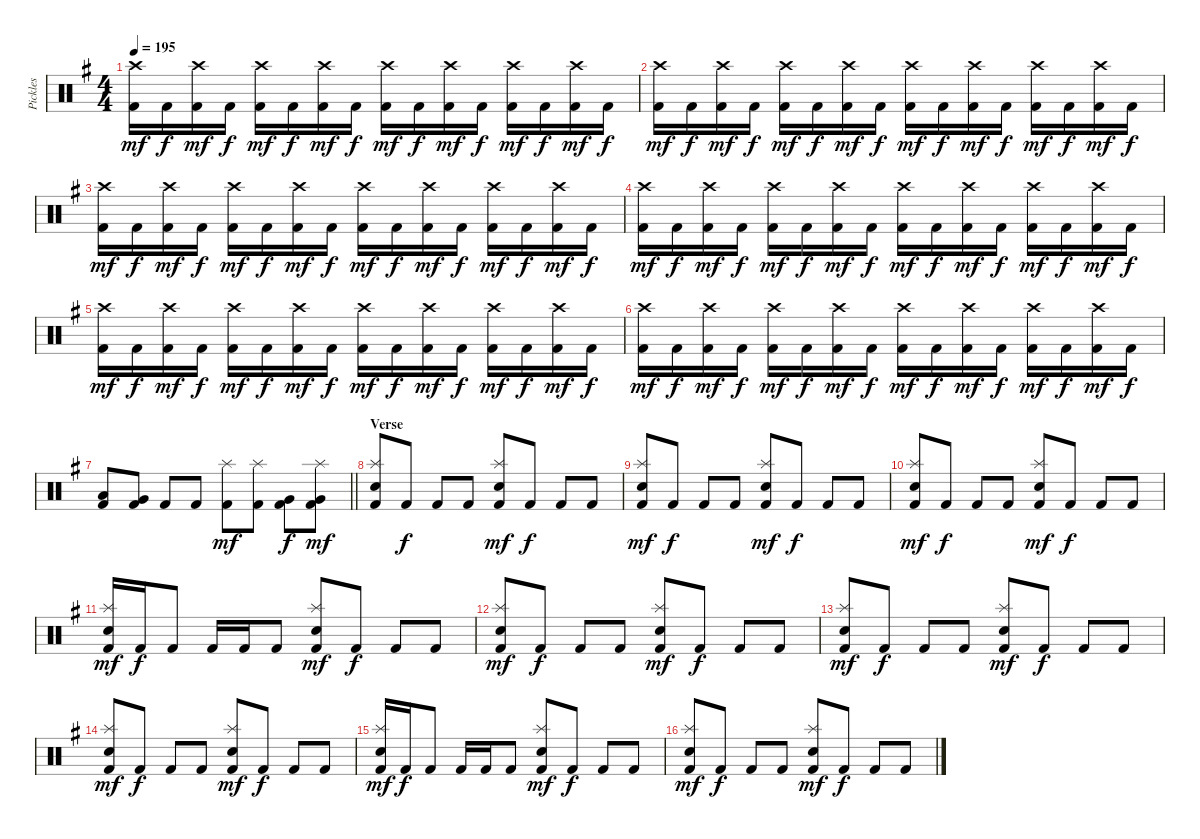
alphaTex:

\track ("Pickles" "Pickles") {instrument percussion}
\staff {score}
\articulation defaults
\ts (4 4)
\tempo 195
\clef neutral
\ks eminor
("Crash high (hit)" "Kick (hit) 2").16{dy mf} "Kick (hit) 2".16{dy f} ("Crash high (hit)" "Kick (hit) 2").16{dy mf} "Kick (hit) 2".16{dy f} ("Crash high (hit)" "Kick (hit) 2").16{dy mf} "Kick (hit) 2".16{dy f} ("Crash high (hit)" "Kick (hit) 2").16{dy mf} "Kick (hit) 2".16{dy f} ("Crash high (hit)" "Kick (hit) 2").16{dy mf} "Kick (hit) 2".16{dy f} ("Crash high (hit)" "Kick (hit) 2").16{dy mf} "Kick (hit) 2".16{dy f} ("Crash high (hit)" "Kick (hit) 2").16{dy mf} "Kick (hit) 2".16{dy f} ("Crash high (hit)" "Kick (hit) 2").16{dy mf} "Kick (hit) 2".16{dy f} |
("Crash high (hit)" "Kick (hit) 2").16{dy mf} "Kick (hit) 2".16{dy f} ("Crash high (hit)" "Kick (hit) 2").16{dy mf} "Kick (hit) 2".16{dy f} ("Crash high (hit)" "Kick (hit) 2").16{dy mf} "Kick (hit) 2".16{dy f} ("Crash high (hit)" "Kick (hit) 2").16{dy mf} "Kick (hit) 2".16{dy f} ("Crash high (hit)" "Kick (hit) 2").16{dy mf} "Kick (hit) 2".16{dy f} ("Crash high (hit)" "Kick (hit) 2").16{dy mf} "Kick (hit) 2".16{dy f} ("Crash high (hit)" "Kick (hit) 2").16{dy mf} "Kick (hit) 2".16{dy f} ("Crash high (hit)" "Kick (hit) 2").16{dy mf} "Kick (hit) 2".16{dy f} |
("Crash high (hit)" "Kick (hit) 2").16{dy mf} "Kick (hit) 2".16{dy f} ("Crash high (hit)" "Kick (hit) 2").16{dy mf} "Kick (hit) 2".16{dy f} ("Crash high (hit)" "Kick (hit) 2").16{dy mf} "Kick (hit) 2".16{dy f} ("Crash high (hit)" "Kick (hit) 2").16{dy mf} "Kick (hit) 2".16{dy f} ("Crash high (hit)" "Kick (hit) 2").16{dy mf} "Kick (hit) 2".16{dy f} ("Crash high (hit)" "Kick (hit) 2").16{dy mf} "Kick (hit) 2".16{dy f} ("Crash high (hit)" "Kick (hit) 2").16{dy mf} "Kick (hit) 2".16{dy f} ("Crash high (hit)" "Kick (hit) 2").16{dy mf} "Kick (hit) 2".16{dy f} |
("Crash high (hit)" "Kick (hit) 2").16{dy mf} "Kick (hit) 2".16{dy f} ("Crash high (hit)" "Kick (hit) 2").16{dy mf} "Kick (hit) 2".16{dy f} ("Crash high (hit)" "Kick (hit) 2").16{dy mf} "Kick (hit) 2".16{dy f} ("Crash high (hit)" "Kick (hit) 2").16{dy mf} "Kick (hit) 2".16{dy f} ("Crash high (hit)" "Kick (hit) 2").16{dy mf} "Kick (hit) 2".16{dy f} ("Crash high (hit)" "Kick (hit) 2").16{dy mf} "Kick (hit) 2".16{dy f} ("Crash high (hit)" "Kick (hit) 2").16{dy mf} "Kick (hit) 2".16{dy f} ("Crash high (hit)" "Kick (hit) 2").16{dy mf} "Kick (hit) 2".16{dy f} |
("Crash high (hit)" "Kick (hit) 2").16{dy mf} "Kick (hit) 2".16{dy f} ("Crash high (hit)" "Kick (hit) 2").16{dy mf} "Kick (hit) 2".16{dy f} ("Crash high (hit)" "Kick (hit) 2").16{dy mf} "Kick (hit) 2".16{dy f} ("Crash high (hit)" "Kick (hit) 2").16{dy mf} "Kick (hit) 2".16{dy f} ("Crash high (hit)" "Kick (hit) 2").16{dy mf} "Kick (hit) 2".16{dy f} ("Crash high (hit)" "Kick (hit) 2").16{dy mf} "Kick (hit) 2".16{dy f} ("Crash high (hit)" "Kick (hit) 2").16{dy mf} "Kick (hit) 2".16{dy f} ("Crash high (hit)" "Kick (hit) 2").16{dy mf} "Kick (hit) 2".16{dy f} |
("Crash high (hit)" "Kick (hit) 2").16{dy mf} "Kick (hit) 2".16{dy f} ("Crash high (hit)" "Kick (hit) 2").16{dy mf} "Kick (hit) 2".16{dy f} ("Crash high (hit)" "Kick (hit) 2").16{dy mf} "Kick (hit) 2".16{dy f} ("Crash high (hit)" "Kick (hit) 2").16{dy mf} "Kick (hit) 2".16{dy f} ("Crash high (hit)" "Kick (hit) 2").16{dy mf} "Kick (hit) 2".16{dy f} ("Crash high (hit)" "Kick (hit) 2").16{dy mf} "Kick (hit) 2".16{dy f} ("Crash high (hit)" "Kick (hit) 2").16{dy mf} "Kick (hit) 2".16{dy f} ("Crash high (hit)" "Kick (hit) 2").16{dy mf} "Kick (hit) 2".16{dy f} |
\barLineRight lightlight
("Low Tom (hit)" "Kick (hit) 2").8 ("Very Low Tom (hit)" "Kick (hit) 2").8 "Kick (hit) 2".8 "Kick (hit) 2".8 ("Splash (hit)" "Kick (hit) 2").8{dy mf} ("Splash (hit)" "Kick (hit) 2").8 ("Very Low Tom (hit)" "Kick (hit) 2").8{dy f} ("Splash (hit)" "Very Low Tom (hit)" "Kick (hit) 2").8{dy mf} |
\section ("" "Verse")
("Splash (hit)" "Snare (hit) 2" "Kick (hit) 2").8 "Kick (hit) 2".8{dy f} "Kick (hit) 2".8 "Kick (hit) 2".8 ("Splash (hit)" "Snare (hit) 2" "Kick (hit) 2").8{dy mf} "Kick (hit) 2".8{dy f} "Kick (hit) 2".8 "Kick (hit) 2".8 |
("Splash (hit)" "Snare (hit) 2" "Kick (hit) 2").8{dy mf} "Kick (hit) 2".8{dy f} "Kick (hit) 2".8 "Kick (hit) 2".8 ("Splash (hit)" "Snare (hit) 2" "Kick (hit) 2").8{dy mf} "Kick (hit) 2".8{dy f} "Kick (hit) 2".8 "Kick (hit) 2".8 |
("Splash (hit)" "Snare (hit) 2" "Kick (hit) 2").8{dy mf} "Kick (hit) 2".8{dy f} "Kick (hit) 2".8 "Kick (hit) 2".8 ("Splash (hit)" "Snare (hit) 2" "Kick (hit) 2").8{dy mf} "Kick (hit) 2".8{dy f} "Kick (hit) 2".8 "Kick (hit) 2".8 |
("Splash (hit)" "Snare (hit) 2" "Kick (hit) 2").16{dy mf} "Kick (hit) 2".16{dy f} "Kick (hit) 2".8 "Kick (hit) 2".16 "Kick (hit) 2".16 "Kick (hit) 2".8 ("Splash (hit)" "Snare (hit) 2" "Kick (hit) 2").8{dy mf} "Kick (hit) 2".8{dy f} "Kick (hit) 2".8 "Kick (hit) 2".8 |
("Splash (hit)" "Snare (hit) 2" "Kick (hit) 2").8{dy mf} "Kick (hit) 2".8{dy f} "Kick (hit) 2".8 "Kick (hit) 2".8 ("Splash (hit)" "Snare (hit) 2" "Kick (hit) 2").8{dy mf} "Kick (hit) 2".8{dy f} "Kick (hit) 2".8 "Kick (hit) 2".8 |
("Splash (hit)" "Snare (hit) 2" "Kick (hit) 2").8{dy mf} "Kick (hit) 2".8{dy f} "Kick (hit) 2".8 "Kick (hit) 2".8 ("Splash (hit)" "Snare (hit) 2" "Kick (hit) 2").8{dy mf} "Kick (hit) 2".8{dy f} "Kick (hit) 2".8 "Kick (hit) 2".8 |
("Splash (hit)" "Snare (hit) 2" "Kick (hit) 2").8{dy mf} "Kick (hit) 2".8{dy f} "Kick (hit) 2".8 "Kick (hit) 2".8 ("Splash (hit)" "Snare (hit) 2" "Kick (hit) 2").8{dy mf} "Kick (hit) 2".8{dy f} "Kick (hit) 2".8 "Kick (hit) 2".8 |
("Splash (hit)" "Snare (hit) 2" "Kick (hit) 2").16{dy mf} "Kick (hit) 2".16{dy f} "Kick (hit) 2".8 "Kick (hit) 2".16 "Kick (hit) 2".16 "Kick (hit) 2".8 ("Splash (hit)" "Snare (hit) 2" "Kick (hit) 2").8{dy mf} "Kick (hit) 2".8{dy f} "Kick (hit) 2".8 "Kick (hit) 2".8 |
("Splash (hit)" "Snare (hit) 2" "Kick (hit) 2").8{dy mf} "Kick (hit) 2".8{dy f} "Kick (hit) 2".8 "Kick (hit) 2".8 ("Splash (hit)" "Snare (hit) 2" "Kick (hit) 2").8{dy mf} "Kick (hit) 2".8{dy f} "Kick (hit) 2".8 "Kick (hit) 2".8
